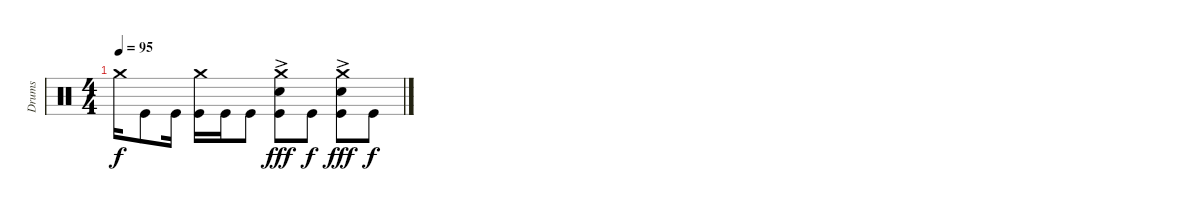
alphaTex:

\track ("Drums" "Drums") {instrument percussion}
\staff {score}
\articulation defaults
\ts (4 4)
\tempo 95
\clef neutral
\ks c "Crash medium (hit)".16{dy f} "Kick (hit)".8 "Kick (hit)".16
("Crash medium (hit)" "Kick (hit)").16 "Kick (hit)".16 "Kick (hit)".8 ("Crash medium (hit)" "Snare (hit) 2"{ac} "Kick (hit)").8{dy fff} "Kick (hit)".8{dy f} ("Crash medium (hit)" "Snare (hit) 2"{ac} "Kick (hit)").8{dy fff} "Kick (hit)".8{dy f}
